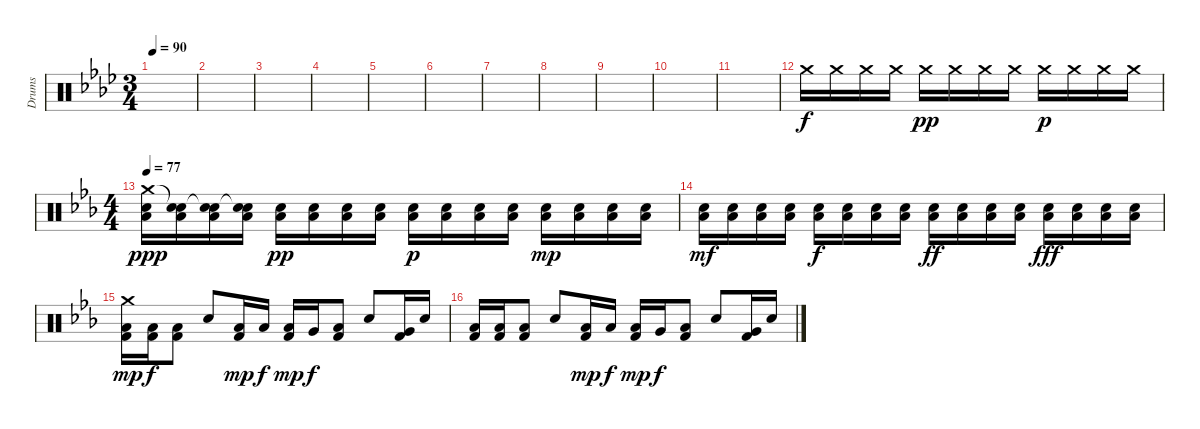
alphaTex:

\track ("Drums" "Drums") {instrument percussion}
\staff {score}
\articulation defaults
\ts (3 4)
\tempo 90
\clef neutral
\ks ab
|
|
|
|
|
|
|
|
|
|
|
"Crash medium (hit)".16 "Crash medium (hit)".16 "Crash medium (hit)".16 "Crash medium (hit)".16 "Crash medium (hit)".16{dy pp} "Crash medium (hit)".16 "Crash medium (hit)".16 "Crash medium (hit)".16 "Crash medium (hit)".16{dy p} "Crash medium (hit)".16 "Crash medium (hit)".16 "Crash medium (hit)".16 |
\ts (4 4)
\tempo 77
\ks eb
("Crash medium (hit)" "Low Floor Tom (hit)" "Electric Snare (hit)").16{dy ppp} ("Snare (hit)"{t} "Low Floor Tom (hit)" "Electric Snare (hit)").16 ("Snare (hit)"{t} "Low Floor Tom (hit)" "Electric Snare (hit)").16 ("Snare (hit)"{t} "Low Floor Tom (hit)" "Electric Snare (hit)").16 ("Low Floor Tom (hit)" "Electric Snare (hit)").16{dy pp} ("Low Floor Tom (hit)" "Electric Snare (hit)").16 ("Low Floor Tom (hit)" "Electric Snare (hit)").16 ("Low Floor Tom (hit)" "Electric Snare (hit)").16 ("Low Floor Tom (hit)" "Electric Snare (hit)").16{dy p} ("Low Floor Tom (hit)" "Electric Snare (hit)").16 ("Low Floor Tom (hit)" "Electric Snare (hit)").16 ("Low Floor Tom (hit)" "Electric Snare (hit)").16 ("Low Floor Tom (hit)" "Electric Snare (hit)").16{dy mp} ("Low Floor Tom (hit)" "Electric Snare (hit)").16 ("Low Floor Tom (hit)" "Electric Snare (hit)").16 ("Low Floor Tom (hit)" "Electric Snare (hit)").16 |
("Low Floor Tom (hit)" "Electric Snare (hit)").16{dy mf} ("Low Floor Tom (hit)" "Electric Snare (hit)").16 ("Low Floor Tom (hit)" "Electric Snare (hit)").16 ("Low Floor Tom (hit)" "Electric Snare (hit)").16 ("Low Floor Tom (hit)" "Electric Snare (hit)").16{dy f} ("Low Floor Tom (hit)" "Electric Snare (hit)").16 ("Low Floor Tom (hit)" "Electric Snare (hit)").16 ("Low Floor Tom (hit)" "Electric Snare (hit)").16 ("Low Floor Tom (hit)" "Electric Snare (hit)").16{dy ff} ("Low Floor Tom (hit)" "Electric Snare (hit)").16 ("Low Floor Tom (hit)" "Electric Snare (hit)").16 ("Low Floor Tom (hit)" "Electric Snare (hit)").16 ("Low Floor Tom (hit)" "Electric Snare (hit)").16{dy fff} ("Low Floor Tom (hit)" "Electric Snare (hit)").16 ("Low Floor Tom (hit)" "Electric Snare (hit)").16 ("Low Floor Tom (hit)" "Electric Snare (hit)").16 |
("Crash medium (hit)" "Low Floor Tom (hit)" "Kick (hit) 2").16{dy mp} ("Low Floor Tom (hit)" "Kick (hit) 2").16{dy f} ("Low Floor Tom (hit)" "Kick (hit) 2").8 "Electric Snare (hit)".8 ("Low Floor Tom (hit)" "Kick (hit) 2").16{dy mp} "Low Tom (hit)".16{dy f} ("Low Floor Tom (hit)" "Kick (hit) 2").16{dy mp} "Very Low Tom (hit)".16{dy f} ("Low Floor Tom (hit)" "Kick (hit) 2").8 "Electric Snare (hit)".8 ("Very Low Tom (hit)" "Kick (hit) 2").16 "Electric Snare (hit)".16 |
("Low Floor Tom (hit)" "Kick (hit) 2").16 ("Low Floor Tom (hit)" "Kick (hit) 2").16 ("Low Floor Tom (hit)" "Kick (hit) 2").8 "Electric Snare (hit)".8 ("Low Floor Tom (hit)" "Kick (hit) 2").16{dy mp} "Low Tom (hit)".16{dy f} ("Low Floor Tom (hit)" "Kick (hit) 2").16{dy mp} "Very Low Tom (hit)".16{dy f} ("Low Floor Tom (hit)" "Kick (hit) 2").8 "Electric Snare (hit)".8 ("Very Low Tom (hit)" "Kick (hit) 2").16 "Electric Snare (hit)".16
